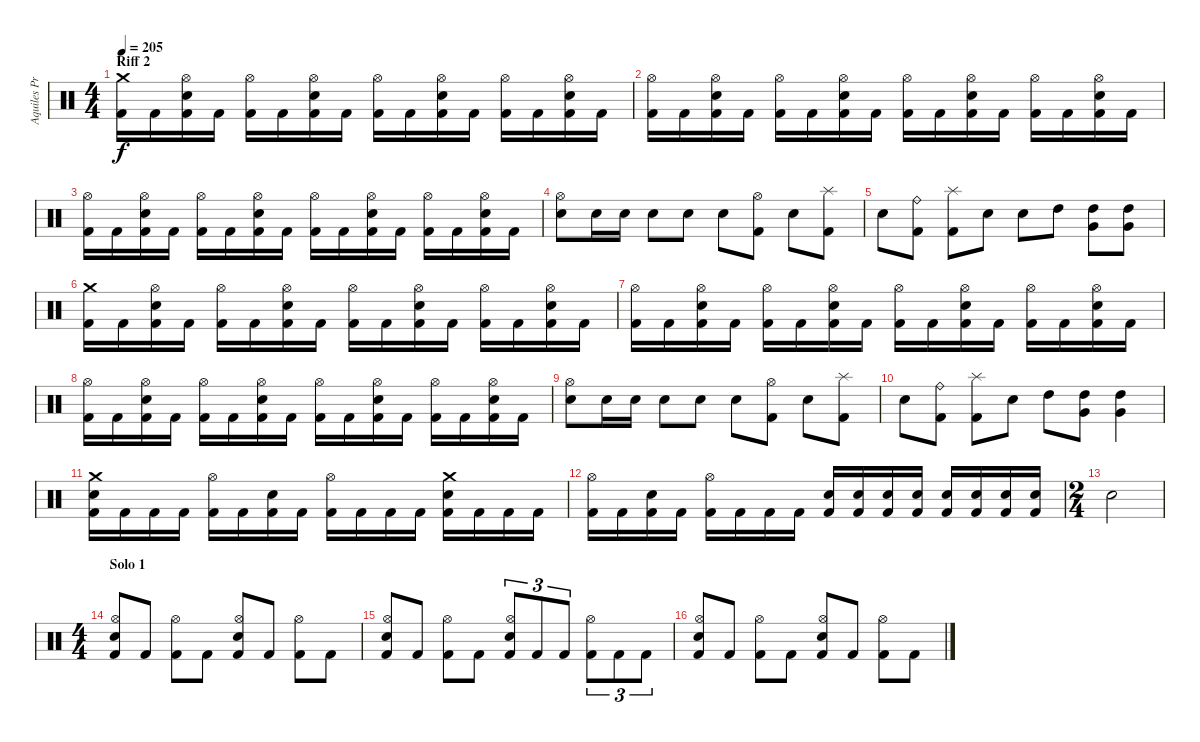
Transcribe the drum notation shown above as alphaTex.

\track ("Aquiles Priester" "Aquiles Pr") {instrument percussion}
\staff {score}
\articulation defaults
\ts (4 4)
\section ("" "Riff 2")
\tempo 205
\clef neutral
\ks c
("Crash medium (hit)" "Kick (hit) 2").16{dy f} "Kick (hit) 2".16 ("Hi-Hat (open)" "Electric Snare (hit)" "Kick (hit) 2").16 "Kick (hit) 2".16 ("Hi-Hat (open)" "Kick (hit) 2").16 "Kick (hit) 2".16 ("Hi-Hat (open)" "Electric Snare (hit)" "Kick (hit) 2").16 "Kick (hit) 2".16 ("Hi-Hat (open)" "Kick (hit) 2").16 "Kick (hit) 2".16 ("Hi-Hat (open)" "Electric Snare (hit)" "Kick (hit) 2").16 "Kick (hit) 2".16 ("Hi-Hat (open)" "Kick (hit) 2").16 "Kick (hit) 2".16 ("Hi-Hat (open)" "Electric Snare (hit)" "Kick (hit) 2").16 "Kick (hit) 2".16 |
("Hi-Hat (open)" "Kick (hit) 2").16 "Kick (hit) 2".16 ("Hi-Hat (open)" "Electric Snare (hit)" "Kick (hit) 2").16 "Kick (hit) 2".16 ("Hi-Hat (open)" "Kick (hit) 2").16 "Kick (hit) 2".16 ("Hi-Hat (open)" "Electric Snare (hit)" "Kick (hit) 2").16 "Kick (hit) 2".16 ("Hi-Hat (open)" "Kick (hit) 2").16 "Kick (hit) 2".16 ("Hi-Hat (open)" "Electric Snare (hit)" "Kick (hit) 2").16 "Kick (hit) 2".16 ("Hi-Hat (open)" "Kick (hit) 2").16 "Kick (hit) 2".16 ("Hi-Hat (open)" "Electric Snare (hit)" "Kick (hit) 2").16 "Kick (hit) 2".16 |
("Hi-Hat (open)" "Kick (hit) 2").16 "Kick (hit) 2".16 ("Hi-Hat (open)" "Electric Snare (hit)" "Kick (hit) 2").16 "Kick (hit) 2".16 ("Hi-Hat (open)" "Kick (hit) 2").16 "Kick (hit) 2".16 ("Hi-Hat (open)" "Electric Snare (hit)" "Kick (hit) 2").16 "Kick (hit) 2".16 ("Hi-Hat (open)" "Kick (hit) 2").16 "Kick (hit) 2".16 ("Hi-Hat (open)" "Electric Snare (hit)" "Kick (hit) 2").16 "Kick (hit) 2".16 ("Hi-Hat (open)" "Kick (hit) 2").16 "Kick (hit) 2".16 ("Hi-Hat (open)" "Electric Snare (hit)" "Kick (hit) 2").16 "Kick (hit) 2".16 |
("Hi-Hat (open)" "Electric Snare (hit)").8 "Electric Snare (hit)".16 "Electric Snare (hit)".16 "Electric Snare (hit)".8 "Electric Snare (hit)".8 "Electric Snare (hit)".8 ("Hi-Hat (open)" "Kick (hit) 2").8 "Electric Snare (hit)".8 ("Splash (hit)" "Kick (hit) 2").8 |
"Electric Snare (hit)".8 ("Ride (bell)" "Kick (hit) 2").8 ("Splash (hit)" "Kick (hit) 2").8 "Electric Snare (hit)".8 "Electric Snare (hit)".8 "High Tom (hit)".8 ("High Tom (hit)" "Very Low Tom (hit)").8 ("High Tom (hit)" "Very Low Tom (hit)").8 |
("Crash medium (hit)" "Kick (hit) 2").16 "Kick (hit) 2".16 ("Hi-Hat (open)" "Electric Snare (hit)" "Kick (hit) 2").16 "Kick (hit) 2".16 ("Hi-Hat (open)" "Kick (hit) 2").16 "Kick (hit) 2".16 ("Hi-Hat (open)" "Electric Snare (hit)" "Kick (hit) 2").16 "Kick (hit) 2".16 ("Hi-Hat (open)" "Kick (hit) 2").16 "Kick (hit) 2".16 ("Hi-Hat (open)" "Electric Snare (hit)" "Kick (hit) 2").16 "Kick (hit) 2".16 ("Hi-Hat (open)" "Kick (hit) 2").16 "Kick (hit) 2".16 ("Hi-Hat (open)" "Electric Snare (hit)" "Kick (hit) 2").16 "Kick (hit) 2".16 |
("Hi-Hat (open)" "Kick (hit) 2").16 "Kick (hit) 2".16 ("Hi-Hat (open)" "Electric Snare (hit)" "Kick (hit) 2").16 "Kick (hit) 2".16 ("Hi-Hat (open)" "Kick (hit) 2").16 "Kick (hit) 2".16 ("Hi-Hat (open)" "Electric Snare (hit)" "Kick (hit) 2").16 "Kick (hit) 2".16 ("Hi-Hat (open)" "Kick (hit) 2").16 "Kick (hit) 2".16 ("Hi-Hat (open)" "Electric Snare (hit)" "Kick (hit) 2").16 "Kick (hit) 2".16 ("Hi-Hat (open)" "Kick (hit) 2").16 "Kick (hit) 2".16 ("Hi-Hat (open)" "Electric Snare (hit)" "Kick (hit) 2").16 "Kick (hit) 2".16 |
("Hi-Hat (open)" "Kick (hit) 2").16 "Kick (hit) 2".16 ("Hi-Hat (open)" "Electric Snare (hit)" "Kick (hit) 2").16 "Kick (hit) 2".16 ("Hi-Hat (open)" "Kick (hit) 2").16 "Kick (hit) 2".16 ("Hi-Hat (open)" "Electric Snare (hit)" "Kick (hit) 2").16 "Kick (hit) 2".16 ("Hi-Hat (open)" "Kick (hit) 2").16 "Kick (hit) 2".16 ("Hi-Hat (open)" "Electric Snare (hit)" "Kick (hit) 2").16 "Kick (hit) 2".16 ("Hi-Hat (open)" "Kick (hit) 2").16 "Kick (hit) 2".16 ("Hi-Hat (open)" "Electric Snare (hit)" "Kick (hit) 2").16 "Kick (hit) 2".16 |
("Hi-Hat (open)" "Electric Snare (hit)").8 "Electric Snare (hit)".16 "Electric Snare (hit)".16 "Electric Snare (hit)".8 "Electric Snare (hit)".8 "Electric Snare (hit)".8 ("Hi-Hat (open)" "Kick (hit) 2").8 "Electric Snare (hit)".8 ("Splash (hit)" "Kick (hit) 2").8 |
"Electric Snare (hit)".8 ("Ride (bell)" "Kick (hit) 2").8 ("Splash (hit)" "Kick (hit) 2").8 "Electric Snare (hit)".8 "High Tom (hit)".8 ("High Tom (hit)" "Very Low Tom (hit)").8 ("High Tom (hit)" "Very Low Tom (hit)").4 |
("Crash medium (hit)" "Electric Snare (hit)" "Kick (hit) 2").16 "Kick (hit) 2".16 "Kick (hit) 2".16 "Kick (hit) 2".16 ("Hi-Hat (open)" "Kick (hit) 2").16 "Kick (hit) 2".16 ("Electric Snare (hit)" "Kick (hit) 2").16 "Kick (hit) 2".16 ("Hi-Hat (open)" "Kick (hit) 2").16 "Kick (hit) 2".16 "Kick (hit) 2".16 "Kick (hit) 2".16 ("Crash medium (hit)" "Electric Snare (hit)" "Kick (hit) 2").16 "Kick (hit) 2".16 "Kick (hit) 2".16 "Kick (hit) 2".16 |
("Hi-Hat (open)" "Kick (hit) 2").16 "Kick (hit) 2".16 ("Electric Snare (hit)" "Kick (hit) 2").16 "Kick (hit) 2".16 ("Hi-Hat (open)" "Kick (hit) 2").16 "Kick (hit) 2".16 "Kick (hit) 2".16 "Kick (hit) 2".16 ("Electric Snare (hit)" "Kick (hit) 2").16 ("Electric Snare (hit)" "Kick (hit) 2").16 ("Electric Snare (hit)" "Kick (hit) 2").16 ("Electric Snare (hit)" "Kick (hit) 2").16 ("Electric Snare (hit)" "Kick (hit) 2").16 ("Electric Snare (hit)" "Kick (hit) 2").16 ("Electric Snare (hit)" "Kick (hit) 2").16 ("Electric Snare (hit)" "Kick (hit) 2").16 |
\ts (2 4)
"Electric Snare (hit)".2 |
\ts (4 4)
\section ("" "Solo 1")
("Hi-Hat (open)" "Electric Snare (hit)" "Kick (hit) 2").8 "Kick (hit) 2".8 ("Hi-Hat (open)" "Kick (hit) 2").8 "Kick (hit) 2".8 ("Hi-Hat (open)" "Electric Snare (hit)" "Kick (hit) 2").8 "Kick (hit) 2".8 ("Hi-Hat (open)" "Kick (hit) 2").8 "Kick (hit) 2".8 |
("Hi-Hat (open)" "Electric Snare (hit)" "Kick (hit) 2").8 "Kick (hit) 2".8 ("Hi-Hat (open)" "Kick (hit) 2").8 "Kick (hit) 2".8 ("Hi-Hat (open)" "Electric Snare (hit)" "Kick (hit) 2").8{tu (3 2)} "Kick (hit) 2".8{tu (3 2)} "Kick (hit) 2".8{tu (3 2)} ("Hi-Hat (open)" "Kick (hit) 2").8{tu (3 2)} "Kick (hit) 2".8{tu (3 2)} "Kick (hit) 2".8{tu (3 2)} |
("Hi-Hat (open)" "Electric Snare (hit)" "Kick (hit) 2").8 "Kick (hit) 2".8 ("Hi-Hat (open)" "Kick (hit) 2").8 "Kick (hit) 2".8 ("Hi-Hat (open)" "Electric Snare (hit)" "Kick (hit) 2").8 "Kick (hit) 2".8 ("Hi-Hat (open)" "Kick (hit) 2").8 "Kick (hit) 2".8
